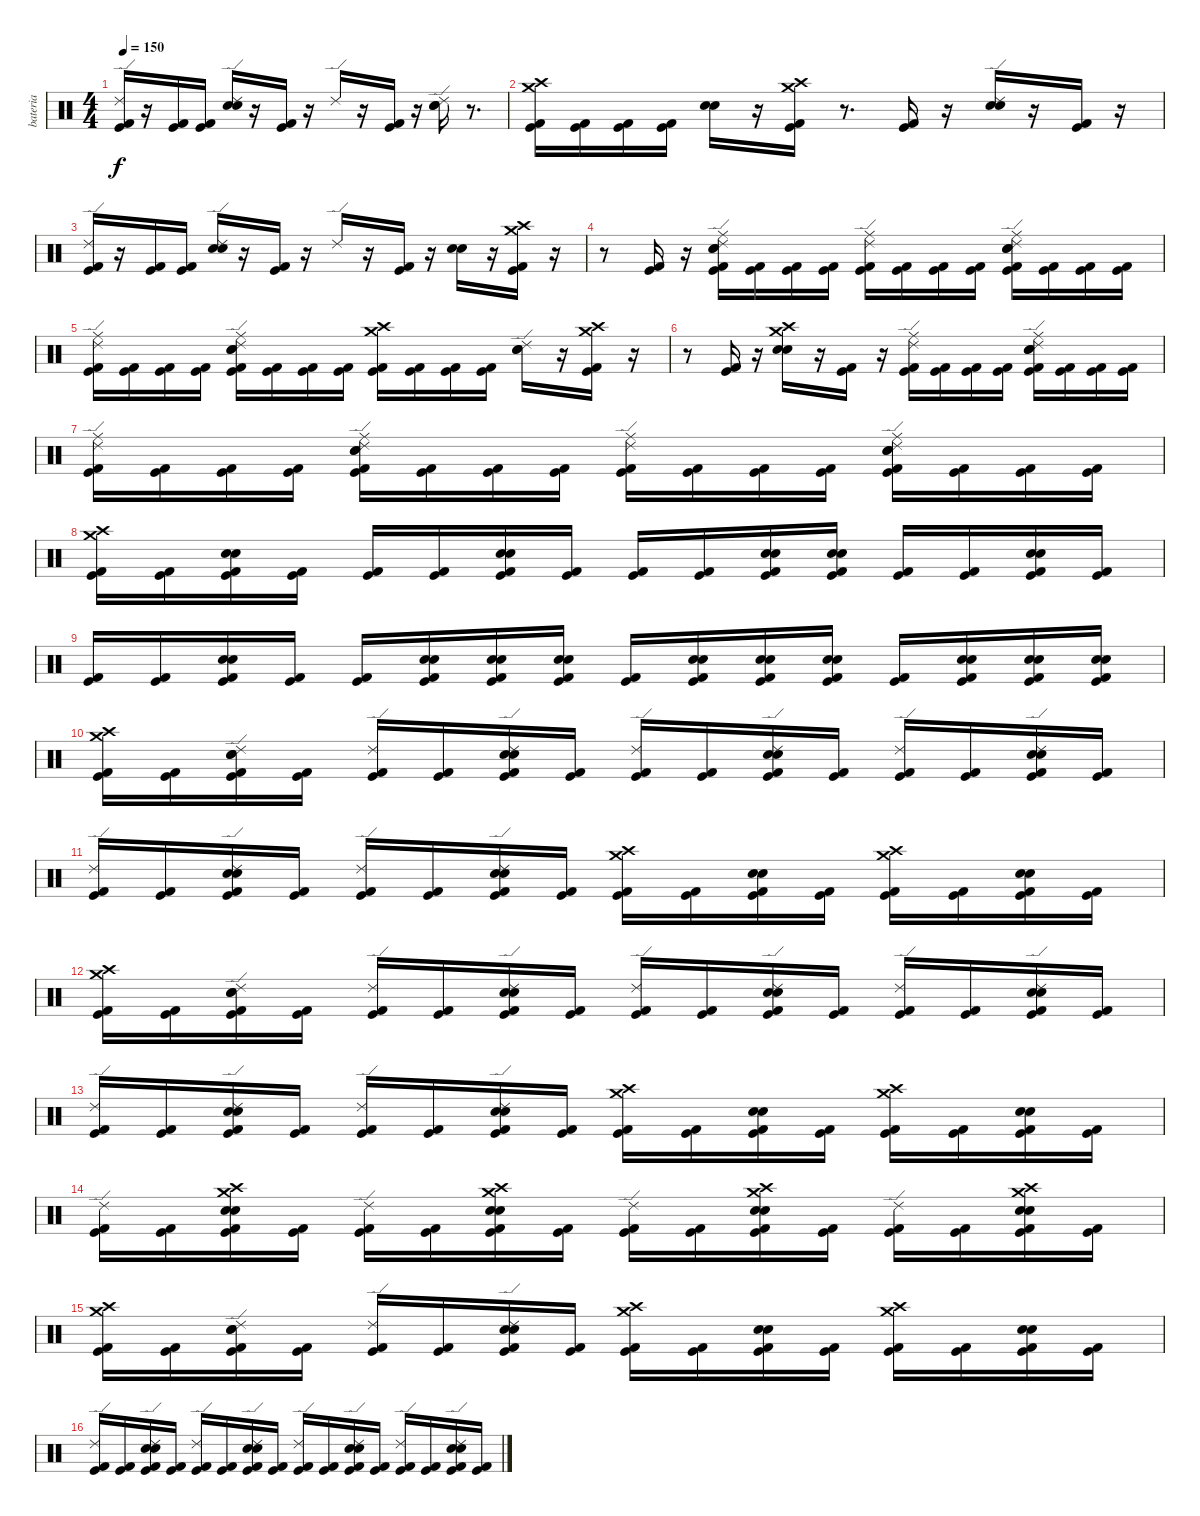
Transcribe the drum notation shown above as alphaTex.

\track ("bateria" "bateria") {instrument percussion}
\staff {score}
\articulation defaults
\ts (4 4)
\tempo 150
\clef neutral
\ks c
("Ride (edge) 2" "Kick (hit) 2" "Kick (hit)").16{dy f} r.16 ("Kick (hit) 2" "Kick (hit)").16 ("Kick (hit) 2" "Kick (hit)").16 ("Ride (edge) 2" "Electric Snare (hit)" "Snare (hit) 2").16 r.16 ("Kick (hit) 2" "Kick (hit)").16 r.16 "Ride (edge) 2".16 r.16 ("Kick (hit) 2" "Kick (hit)").16 r.16 ("Ride (edge) 2" "Electric Snare (hit)" "Snare (hit) 2").16 r.8{d} |
("Crash high (hit)" "Crash medium (hit)" "Kick (hit) 2" "Kick (hit)").16 ("Kick (hit) 2" "Kick (hit)").16 ("Kick (hit) 2" "Kick (hit)").16 ("Kick (hit) 2" "Kick (hit)").16 ("Electric Snare (hit)" "Snare (hit) 2").16 r.16 ("Crash high (hit)" "Crash medium (hit)" "Kick (hit) 2" "Kick (hit)").16 r.8{d} ("Kick (hit) 2" "Kick (hit)").16 r.16 ("Ride (edge) 2" "Snare (hit) 2" "Electric Snare (hit)").16 r.16 ("Kick (hit) 2" "Kick (hit)").16 r.16 |
("Ride (edge) 2" "Kick (hit) 2" "Kick (hit)").16 r.16 ("Kick (hit) 2" "Kick (hit)").16 ("Kick (hit) 2" "Kick (hit)").16 ("Ride (edge) 2" "Electric Snare (hit)" "Snare (hit) 2").16 r.16 ("Kick (hit)" "Kick (hit) 2").16 r.16 "Ride (edge) 2".16 r.16 ("Kick (hit) 2" "Kick (hit)").16 r.16 ("Electric Snare (hit)" "Snare (hit) 2").16 r.16 ("Crash high (hit)" "Crash medium (hit)" "Kick (hit) 2" "Kick (hit)").16 r.16 |
r.8 ("Kick (hit) 2" "Kick (hit)").16 r.16 ("Ride (middle)" "Ride (edge) 2" "Snare (hit) 2" "Electric Snare (hit)" "Kick (hit) 2" "Kick (hit)").16 ("Kick (hit) 2" "Kick (hit)").16 ("Kick (hit) 2" "Kick (hit)").16 ("Kick (hit) 2" "Kick (hit)").16 ("Ride (middle)" "Ride (edge) 2" "Kick (hit) 2" "Kick (hit)").16 ("Kick (hit) 2" "Kick (hit)").16 ("Kick (hit) 2" "Kick (hit)").16 ("Kick (hit) 2" "Kick (hit)").16 ("Ride (middle)" "Electric Snare (hit)" "Snare (hit) 2" "Ride (edge) 2" "Kick (hit) 2" "Kick (hit)").16 ("Kick (hit) 2" "Kick (hit)").16 ("Kick (hit) 2" "Kick (hit)").16 ("Kick (hit) 2" "Kick (hit)").16 |
("Ride (middle)" "Ride (edge) 2" "Kick (hit) 2" "Kick (hit)").16 ("Kick (hit) 2" "Kick (hit)").16 ("Kick (hit) 2" "Kick (hit)").16 ("Kick (hit) 2" "Kick (hit)").16 ("Ride (middle)" "Electric Snare (hit)" "Snare (hit) 2" "Ride (edge) 2" "Kick (hit) 2" "Kick (hit)").16 ("Kick (hit) 2" "Kick (hit)").16 ("Kick (hit) 2" "Kick (hit)").16 ("Kick (hit) 2" "Kick (hit)").16 ("Crash medium (hit)" "Crash high (hit)" "Kick (hit) 2" "Kick (hit)").16 ("Kick (hit) 2" "Kick (hit)").16 ("Kick (hit) 2" "Kick (hit)").16 ("Kick (hit) 2" "Kick (hit)").16 ("Electric Snare (hit)" "Snare (hit) 2" "Ride (edge) 2").16 r.16 ("Crash high (hit)" "Crash medium (hit)" "Kick (hit) 2" "Kick (hit)").16 r.16 |
r.8 ("Kick (hit) 2" "Kick (hit)").16 r.16 ("Crash high (hit)" "Crash medium (hit)" "Snare (hit) 2" "Electric Snare (hit)").16 r.16 ("Kick (hit) 2" "Kick (hit)").16 r.16 ("Ride (middle)" "Ride (edge) 2" "Kick (hit) 2" "Kick (hit)").16 ("Kick (hit) 2" "Kick (hit)").16 ("Kick (hit) 2" "Kick (hit)").16 ("Kick (hit) 2" "Kick (hit)").16 ("Ride (middle)" "Electric Snare (hit)" "Snare (hit) 2" "Ride (edge) 2" "Kick (hit) 2" "Kick (hit)").16 ("Kick (hit) 2" "Kick (hit)").16 ("Kick (hit) 2" "Kick (hit)").16 ("Kick (hit) 2" "Kick (hit)").16 |
("Ride (middle)" "Ride (edge) 2" "Kick (hit) 2" "Kick (hit)").16 ("Kick (hit) 2" "Kick (hit)").16 ("Kick (hit) 2" "Kick (hit)").16 ("Kick (hit) 2" "Kick (hit)").16 ("Ride (middle)" "Electric Snare (hit)" "Snare (hit) 2" "Ride (edge) 2" "Kick (hit) 2" "Kick (hit)").16 ("Kick (hit) 2" "Kick (hit)").16 ("Kick (hit) 2" "Kick (hit)").16 ("Kick (hit) 2" "Kick (hit)").16 ("Ride (middle)" "Ride (edge) 2" "Kick (hit) 2" "Kick (hit)").16 ("Kick (hit) 2" "Kick (hit)").16 ("Kick (hit) 2" "Kick (hit)").16 ("Kick (hit) 2" "Kick (hit)").16 ("Ride (middle)" "Electric Snare (hit)" "Snare (hit) 2" "Ride (edge) 2" "Kick (hit) 2" "Kick (hit)").16 ("Kick (hit) 2" "Kick (hit)").16 ("Kick (hit) 2" "Kick (hit)").16 ("Kick (hit) 2" "Kick (hit)").16 |
("Crash medium (hit)" "Crash high (hit)" "Kick (hit) 2" "Kick (hit)").16 ("Kick (hit) 2" "Kick (hit)").16 ("Electric Snare (hit)" "Snare (hit) 2" "Kick (hit) 2" "Kick (hit)").16 ("Kick (hit) 2" "Kick (hit)").16 ("Kick (hit) 2" "Kick (hit)").16 ("Kick (hit) 2" "Kick (hit)").16 ("Electric Snare (hit)" "Snare (hit) 2" "Kick (hit) 2" "Kick (hit)").16 ("Kick (hit) 2" "Kick (hit)").16 ("Kick (hit) 2" "Kick (hit)").16 ("Kick (hit) 2" "Kick (hit)").16 ("Electric Snare (hit)" "Snare (hit) 2" "Kick (hit) 2" "Kick (hit)").16 ("Electric Snare (hit)" "Snare (hit) 2" "Kick (hit) 2" "Kick (hit)").16 ("Kick (hit) 2" "Kick (hit)").16 ("Kick (hit) 2" "Kick (hit)").16 ("Electric Snare (hit)" "Snare (hit) 2" "Kick (hit) 2" "Kick (hit)").16 ("Kick (hit) 2" "Kick (hit)").16 |
("Kick (hit) 2" "Kick (hit)").16 ("Kick (hit) 2" "Kick (hit)").16 ("Electric Snare (hit)" "Snare (hit) 2" "Kick (hit) 2" "Kick (hit)").16 ("Kick (hit) 2" "Kick (hit)").16 ("Kick (hit) 2" "Kick (hit)").16 ("Electric Snare (hit)" "Snare (hit) 2" "Kick (hit) 2" "Kick (hit)").16 ("Electric Snare (hit)" "Snare (hit) 2" "Kick (hit) 2" "Kick (hit)").16 ("Electric Snare (hit)" "Snare (hit) 2" "Kick (hit) 2" "Kick (hit)").16 ("Kick (hit) 2" "Kick (hit)").16 ("Snare (hit) 2" "Electric Snare (hit)" "Kick (hit) 2" "Kick (hit)").16 ("Electric Snare (hit)" "Snare (hit) 2" "Kick (hit) 2" "Kick (hit)").16 ("Electric Snare (hit)" "Snare (hit) 2" "Kick (hit) 2" "Kick (hit)").16 ("Kick (hit) 2" "Kick (hit)").16 ("Electric Snare (hit)" "Snare (hit) 2" "Kick (hit) 2" "Kick (hit)").16 ("Electric Snare (hit)" "Snare (hit) 2" "Kick (hit) 2" "Kick (hit)").16 ("Electric Snare (hit)" "Snare (hit) 2" "Kick (hit) 2" "Kick (hit)").16 |
("Crash high (hit)" "Crash medium (hit)" "Kick (hit) 2" "Kick (hit)").16 ("Kick (hit) 2" "Kick (hit)").16 ("Ride (edge) 2" "Electric Snare (hit)" "Snare (hit) 2" "Kick (hit) 2" "Kick (hit)").16 ("Kick (hit) 2" "Kick (hit)").16 ("Ride (edge) 2" "Kick (hit) 2" "Kick (hit)").16 ("Kick (hit) 2" "Kick (hit)").16 ("Ride (edge) 2" "Electric Snare (hit)" "Snare (hit) 2" "Kick (hit) 2" "Kick (hit)").16 ("Kick (hit) 2" "Kick (hit)").16 ("Ride (edge) 2" "Kick (hit) 2" "Kick (hit)").16 ("Kick (hit) 2" "Kick (hit)").16 ("Ride (edge) 2" "Electric Snare (hit)" "Snare (hit) 2" "Kick (hit) 2" "Kick (hit)").16 ("Kick (hit) 2" "Kick (hit)").16 ("Ride (edge) 2" "Kick (hit) 2" "Kick (hit)").16 ("Kick (hit) 2" "Kick (hit)").16 ("Ride (edge) 2" "Electric Snare (hit)" "Snare (hit) 2" "Kick (hit) 2" "Kick (hit)").16 ("Kick (hit) 2" "Kick (hit)").16 |
("Ride (edge) 2" "Kick (hit) 2" "Kick (hit)").16 ("Kick (hit) 2" "Kick (hit)").16 ("Ride (edge) 2" "Electric Snare (hit)" "Snare (hit) 2" "Kick (hit) 2" "Kick (hit)").16 ("Kick (hit) 2" "Kick (hit)").16 ("Ride (edge) 2" "Kick (hit) 2" "Kick (hit)").16 ("Kick (hit) 2" "Kick (hit)").16 ("Ride (edge) 2" "Electric Snare (hit)" "Snare (hit) 2" "Kick (hit) 2" "Kick (hit)").16 ("Kick (hit) 2" "Kick (hit)").16 ("Crash high (hit)" "Crash medium (hit)" "Kick (hit) 2" "Kick (hit)").16 ("Kick (hit) 2" "Kick (hit)").16 ("Electric Snare (hit)" "Snare (hit) 2" "Kick (hit) 2" "Kick (hit)").16 ("Kick (hit) 2" "Kick (hit)").16 ("Crash high (hit)" "Crash medium (hit)" "Kick (hit) 2" "Kick (hit)").16 ("Kick (hit) 2" "Kick (hit)").16 ("Snare (hit) 2" "Electric Snare (hit)" "Kick (hit) 2" "Kick (hit)").16 ("Kick (hit) 2" "Kick (hit)").16 |
("Crash medium (hit)" "Crash high (hit)" "Kick (hit) 2" "Kick (hit)").16 ("Kick (hit) 2" "Kick (hit)").16 ("Ride (edge) 2" "Electric Snare (hit)" "Snare (hit) 2" "Kick (hit) 2" "Kick (hit)").16 ("Kick (hit) 2" "Kick (hit)").16 ("Ride (edge) 2" "Kick (hit) 2" "Kick (hit)").16 ("Kick (hit) 2" "Kick (hit)").16 ("Ride (edge) 2" "Electric Snare (hit)" "Snare (hit) 2" "Kick (hit) 2" "Kick (hit)").16 ("Kick (hit) 2" "Kick (hit)").16 ("Ride (edge) 2" "Kick (hit) 2" "Kick (hit)").16 ("Kick (hit) 2" "Kick (hit)").16 ("Ride (edge) 2" "Electric Snare (hit)" "Snare (hit) 2" "Kick (hit) 2" "Kick (hit)").16 ("Kick (hit) 2" "Kick (hit)").16 ("Ride (edge) 2" "Kick (hit) 2" "Kick (hit)").16 ("Kick (hit) 2" "Kick (hit)").16 ("Ride (edge) 2" "Electric Snare (hit)" "Snare (hit) 2" "Kick (hit) 2" "Kick (hit)").16 ("Kick (hit) 2" "Kick (hit)").16 |
("Ride (edge) 2" "Kick (hit) 2" "Kick (hit)").16 ("Kick (hit) 2" "Kick (hit)").16 ("Ride (edge) 2" "Electric Snare (hit)" "Snare (hit) 2" "Kick (hit) 2" "Kick (hit)").16 ("Kick (hit) 2" "Kick (hit)").16 ("Ride (edge) 2" "Kick (hit) 2" "Kick (hit)").16 ("Kick (hit) 2" "Kick (hit)").16 ("Ride (edge) 2" "Electric Snare (hit)" "Snare (hit) 2" "Kick (hit) 2" "Kick (hit)").16 ("Kick (hit) 2" "Kick (hit)").16 ("Crash high (hit)" "Crash medium (hit)" "Kick (hit) 2" "Kick (hit)").16 ("Kick (hit) 2" "Kick (hit)").16 ("Electric Snare (hit)" "Snare (hit) 2" "Kick (hit) 2" "Kick (hit)").16 ("Kick (hit) 2" "Kick (hit)").16 ("Crash high (hit)" "Crash medium (hit)" "Kick (hit) 2" "Kick (hit)").16 ("Kick (hit) 2" "Kick (hit)").16 ("Electric Snare (hit)" "Snare (hit) 2" "Kick (hit) 2" "Kick (hit)").16 ("Kick (hit) 2" "Kick (hit)").16 |
("Ride (edge) 2" "Kick (hit) 2" "Kick (hit)").16 ("Kick (hit) 2" "Kick (hit)").16 ("Crash high (hit)" "Crash medium (hit)" "Electric Snare (hit)" "Snare (hit) 2" "Kick (hit) 2" "Kick (hit)").16 ("Kick (hit) 2" "Kick (hit)").16 ("Ride (edge) 2" "Kick (hit) 2" "Kick (hit)").16 ("Kick (hit) 2" "Kick (hit)").16 ("Crash high (hit)" "Crash medium (hit)" "Electric Snare (hit)" "Snare (hit) 2" "Kick (hit) 2" "Kick (hit)").16 ("Kick (hit) 2" "Kick (hit)").16 ("Ride (edge) 2" "Kick (hit) 2" "Kick (hit)").16 ("Kick (hit) 2" "Kick (hit)").16 ("Crash high (hit)" "Crash medium (hit)" "Electric Snare (hit)" "Snare (hit) 2" "Kick (hit) 2" "Kick (hit)").16 ("Kick (hit) 2" "Kick (hit)").16 ("Ride (edge) 2" "Kick (hit) 2" "Kick (hit)").16 ("Kick (hit) 2" "Kick (hit)").16 ("Crash medium (hit)" "Crash high (hit)" "Electric Snare (hit)" "Snare (hit) 2" "Kick (hit) 2" "Kick (hit)").16 ("Kick (hit) 2" "Kick (hit)").16 |
("Crash medium (hit)" "Crash high (hit)" "Kick (hit) 2" "Kick (hit)").16 ("Kick (hit) 2" "Kick (hit)").16 ("Ride (edge) 2" "Electric Snare (hit)" "Snare (hit) 2" "Kick (hit) 2" "Kick (hit)").16 ("Kick (hit) 2" "Kick (hit)").16 ("Ride (edge) 2" "Kick (hit) 2" "Kick (hit)").16 ("Kick (hit) 2" "Kick (hit)").16 ("Ride (edge) 2" "Electric Snare (hit)" "Snare (hit) 2" "Kick (hit) 2" "Kick (hit)").16 ("Kick (hit) 2" "Kick (hit)").16 ("Crash high (hit)" "Crash medium (hit)" "Kick (hit) 2" "Kick (hit)").16 ("Kick (hit) 2" "Kick (hit)").16 ("Electric Snare (hit)" "Snare (hit) 2" "Kick (hit) 2" "Kick (hit)").16 ("Kick (hit) 2" "Kick (hit)").16 ("Crash high (hit)" "Crash medium (hit)" "Kick (hit) 2" "Kick (hit)").16 ("Kick (hit) 2" "Kick (hit)").16 ("Electric Snare (hit)" "Snare (hit) 2" "Kick (hit) 2" "Kick (hit)").16 ("Kick (hit) 2" "Kick (hit)").16 |
("Ride (edge) 2" "Kick (hit) 2" "Kick (hit)").16 ("Kick (hit) 2" "Kick (hit)").16 ("Ride (edge) 2" "Electric Snare (hit)" "Snare (hit) 2" "Kick (hit) 2" "Kick (hit)").16 ("Kick (hit) 2" "Kick (hit)").16 ("Ride (edge) 2" "Kick (hit) 2" "Kick (hit)").16 ("Kick (hit) 2" "Kick (hit)").16 ("Ride (edge) 2" "Electric Snare (hit)" "Snare (hit) 2" "Kick (hit) 2" "Kick (hit)").16 ("Kick (hit) 2" "Kick (hit)").16 ("Ride (edge) 2" "Kick (hit) 2" "Kick (hit)").16 ("Kick (hit) 2" "Kick (hit)").16 ("Ride (edge) 2" "Electric Snare (hit)" "Snare (hit) 2" "Kick (hit) 2" "Kick (hit)").16 ("Kick (hit) 2" "Kick (hit)").16 ("Ride (edge) 2" "Kick (hit) 2" "Kick (hit)").16 ("Kick (hit) 2" "Kick (hit)").16 ("Ride (edge) 2" "Electric Snare (hit)" "Snare (hit) 2" "Kick (hit) 2" "Kick (hit)").16 ("Kick (hit) 2" "Kick (hit)").16
